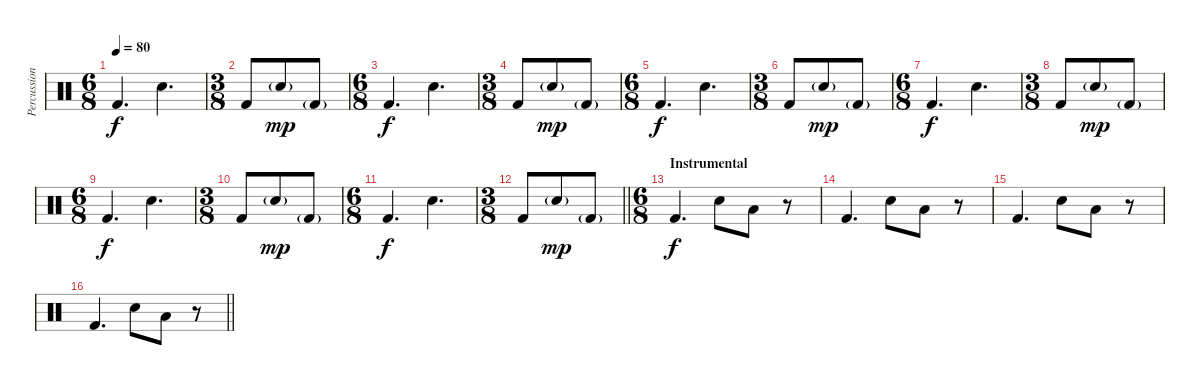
\track ("Percussion" "Percussion") {instrument percussion}
\staff {score}
\articulation defaults
\ts (6 8)
\tempo 80
\clef neutral
\ks c "Kick (hit) 2".4{d dy f} "Snare (hit) 2".4{d}
|
\ts (3 8)
"Kick (hit) 2".8 "Snare (hit) 2"{g}.8{dy mp} "Kick (hit) 2"{g}.8 |
\ts (6 8)
"Kick (hit) 2".4{d dy f} "Snare (hit) 2".4{d} |
\ts (3 8)
"Kick (hit) 2".8 "Snare (hit) 2"{g}.8{dy mp} "Kick (hit) 2"{g}.8 |
\ts (6 8)
"Kick (hit) 2".4{d dy f} "Snare (hit) 2".4{d} |
\ts (3 8)
"Kick (hit) 2".8 "Snare (hit) 2"{g}.8{dy mp} "Kick (hit) 2"{g}.8 |
\ts (6 8)
"Kick (hit) 2".4{d dy f} "Snare (hit) 2".4{d} |
\ts (3 8)
"Kick (hit) 2".8 "Snare (hit) 2"{g}.8{dy mp} "Kick (hit) 2"{g}.8 |
\ts (6 8)
"Kick (hit) 2".4{d dy f} "Snare (hit) 2".4{d} |
\ts (3 8)
"Kick (hit) 2".8 "Snare (hit) 2"{g}.8{dy mp} "Kick (hit) 2"{g}.8 |
\ts (6 8)
"Kick (hit) 2".4{d dy f} "Snare (hit) 2".4{d} |
\ts (3 8)
\barLineRight lightlight "Kick (hit) 2".8 "Snare (hit) 2"{g}.8{dy mp} "Kick (hit) 2"{g}.8
|
\ts (6 8)
\section ("" "Instrumental")
"Kick (hit) 2".4{d dy f} "Snare (hit) 2".8 "Low Floor Tom (hit)".8 r.8 |
"Kick (hit) 2".4{d} "Snare (hit) 2".8 "Low Floor Tom (hit)".8 r.8 |
"Kick (hit) 2".4{d} "Snare (hit) 2".8 "Low Floor Tom (hit)".8 r.8 |
\barLineRight lightlight "Kick (hit) 2".4{d} "Snare (hit) 2".8 "Low Floor Tom (hit)".8
r.8
